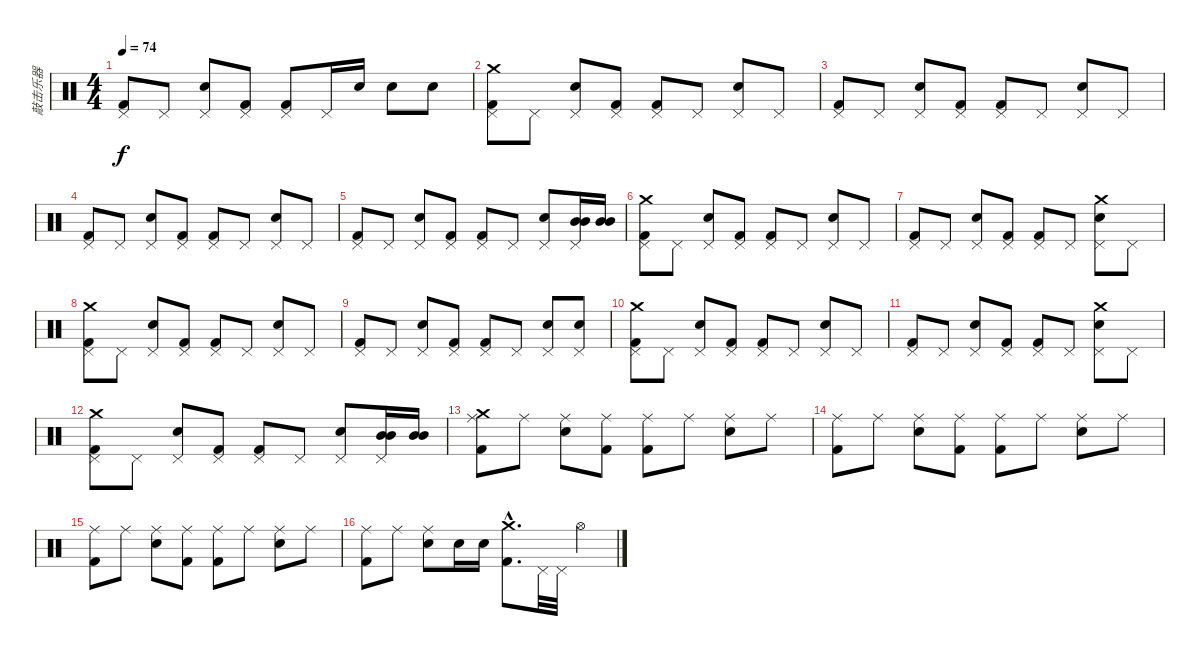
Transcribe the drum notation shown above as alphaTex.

\track ("敲击乐器" "敲击乐器") {instrument percussion}
\staff {score}
\articulation defaults
\ts (4 4)
\tempo 74
\clef neutral
\ks c
("Pedal Hi-Hat (hit)" "Kick (hit) 2").8{dy f} "Pedal Hi-Hat (hit)".8 ("Pedal Hi-Hat (hit)" "Electric Snare (hit)").8 ("Pedal Hi-Hat (hit)" "Kick (hit) 2").8 ("Pedal Hi-Hat (hit)" "Kick (hit) 2").8 "Pedal Hi-Hat (hit)".16 "Electric Snare (hit)".16 "Electric Snare (hit)".8 "Electric Snare (hit)".8 |
("Pedal Hi-Hat (hit)" "Kick (hit) 2" "Crash medium (hit)").8 "Pedal Hi-Hat (hit)".8 ("Pedal Hi-Hat (hit)" "Electric Snare (hit)").8 ("Pedal Hi-Hat (hit)" "Kick (hit) 2").8 ("Pedal Hi-Hat (hit)" "Kick (hit) 2").8 "Pedal Hi-Hat (hit)".8 ("Pedal Hi-Hat (hit)" "Electric Snare (hit)").8 "Pedal Hi-Hat (hit)".8 |
("Pedal Hi-Hat (hit)" "Kick (hit) 2").8 "Pedal Hi-Hat (hit)".8 ("Pedal Hi-Hat (hit)" "Electric Snare (hit)").8 ("Pedal Hi-Hat (hit)" "Kick (hit) 2").8 ("Pedal Hi-Hat (hit)" "Kick (hit) 2").8 "Pedal Hi-Hat (hit)".8 ("Pedal Hi-Hat (hit)" "Electric Snare (hit)").8 "Pedal Hi-Hat (hit)".8 |
("Pedal Hi-Hat (hit)" "Kick (hit) 2").8 "Pedal Hi-Hat (hit)".8 ("Pedal Hi-Hat (hit)" "Electric Snare (hit)").8 ("Pedal Hi-Hat (hit)" "Kick (hit) 2").8 ("Pedal Hi-Hat (hit)" "Kick (hit) 2").8 "Pedal Hi-Hat (hit)".8 ("Pedal Hi-Hat (hit)" "Electric Snare (hit)").8 "Pedal Hi-Hat (hit)".8 |
("Pedal Hi-Hat (hit)" "Kick (hit) 2").8 "Pedal Hi-Hat (hit)".8 ("Pedal Hi-Hat (hit)" "Electric Snare (hit)").8 ("Pedal Hi-Hat (hit)" "Kick (hit) 2").8 ("Pedal Hi-Hat (hit)" "Kick (hit) 2").8 "Pedal Hi-Hat (hit)".8 ("Pedal Hi-Hat (hit)" "Electric Snare (hit)").8 ("Pedal Hi-Hat (hit)" "Mid Tom (hit)" "Mid Tom (hit)").16 ("Mid Tom (hit)" "Mid Tom (hit)").16 |
("Pedal Hi-Hat (hit)" "Kick (hit) 2" "Crash medium (hit)").8 "Pedal Hi-Hat (hit)".8 ("Pedal Hi-Hat (hit)" "Electric Snare (hit)").8 ("Pedal Hi-Hat (hit)" "Kick (hit) 2").8 ("Pedal Hi-Hat (hit)" "Kick (hit) 2").8 "Pedal Hi-Hat (hit)".8 ("Pedal Hi-Hat (hit)" "Electric Snare (hit)").8 "Pedal Hi-Hat (hit)".8 |
("Pedal Hi-Hat (hit)" "Kick (hit) 2").8 "Pedal Hi-Hat (hit)".8 ("Pedal Hi-Hat (hit)" "Electric Snare (hit)").8 ("Pedal Hi-Hat (hit)" "Kick (hit) 2").8 ("Pedal Hi-Hat (hit)" "Kick (hit) 2").8 "Pedal Hi-Hat (hit)".8 ("Pedal Hi-Hat (hit)" "Electric Snare (hit)" "Crash medium (hit)").8 "Pedal Hi-Hat (hit)".8 |
("Pedal Hi-Hat (hit)" "Kick (hit) 2" "Crash medium (hit)").8 "Pedal Hi-Hat (hit)".8 ("Pedal Hi-Hat (hit)" "Electric Snare (hit)").8 ("Pedal Hi-Hat (hit)" "Kick (hit) 2").8 ("Pedal Hi-Hat (hit)" "Kick (hit) 2").8 "Pedal Hi-Hat (hit)".8 ("Pedal Hi-Hat (hit)" "Electric Snare (hit)").8 "Pedal Hi-Hat (hit)".8 |
("Pedal Hi-Hat (hit)" "Kick (hit) 2").8 "Pedal Hi-Hat (hit)".8 ("Pedal Hi-Hat (hit)" "Electric Snare (hit)").8 ("Pedal Hi-Hat (hit)" "Kick (hit) 2").8 ("Pedal Hi-Hat (hit)" "Kick (hit) 2").8 "Pedal Hi-Hat (hit)".8 ("Pedal Hi-Hat (hit)" "Electric Snare (hit)").8 ("Pedal Hi-Hat (hit)" "Electric Snare (hit)").8 |
("Pedal Hi-Hat (hit)" "Kick (hit) 2" "Crash medium (hit)").8 "Pedal Hi-Hat (hit)".8 ("Pedal Hi-Hat (hit)" "Electric Snare (hit)").8 ("Pedal Hi-Hat (hit)" "Kick (hit) 2").8 ("Pedal Hi-Hat (hit)" "Kick (hit) 2").8 "Pedal Hi-Hat (hit)".8 ("Pedal Hi-Hat (hit)" "Electric Snare (hit)").8 "Pedal Hi-Hat (hit)".8 |
("Pedal Hi-Hat (hit)" "Kick (hit) 2").8 "Pedal Hi-Hat (hit)".8 ("Pedal Hi-Hat (hit)" "Electric Snare (hit)").8 ("Pedal Hi-Hat (hit)" "Kick (hit) 2").8 ("Pedal Hi-Hat (hit)" "Kick (hit) 2").8 "Pedal Hi-Hat (hit)".8 ("Pedal Hi-Hat (hit)" "Electric Snare (hit)" "Crash medium (hit)").8 "Pedal Hi-Hat (hit)".8 |
("Pedal Hi-Hat (hit)" "Kick (hit) 2" "Crash medium (hit)").8 "Pedal Hi-Hat (hit)".8 ("Pedal Hi-Hat (hit)" "Electric Snare (hit)").8 ("Pedal Hi-Hat (hit)" "Kick (hit) 2").8 ("Pedal Hi-Hat (hit)" "Kick (hit) 2").8 "Pedal Hi-Hat (hit)".8 ("Pedal Hi-Hat (hit)" "Electric Snare (hit)").8 ("Pedal Hi-Hat (hit)" "Mid Tom (hit)" "Mid Tom (hit)").16 ("Mid Tom (hit)" "Mid Tom (hit)").16 |
("Ride (middle)" "Kick (hit) 2" "Crash medium (hit)").8 "Ride (middle)".8 ("Ride (middle)" "Electric Snare (hit)").8 ("Ride (middle)" "Kick (hit) 2").8 ("Ride (middle)" "Kick (hit) 2").8 "Ride (middle)".8 ("Ride (middle)" "Electric Snare (hit)").8 "Ride (middle)".8 |
("Ride (middle)" "Kick (hit) 2").8 "Ride (middle)".8 ("Ride (middle)" "Electric Snare (hit)").8 ("Ride (middle)" "Kick (hit) 2").8 ("Ride (middle)" "Kick (hit) 2").8 "Ride (middle)".8 ("Ride (middle)" "Electric Snare (hit)").8 "Ride (middle)".8 |
("Ride (middle)" "Kick (hit) 2").8 "Ride (middle)".8 ("Ride (middle)" "Electric Snare (hit)").8 ("Ride (middle)" "Kick (hit) 2").8 ("Ride (middle)" "Kick (hit) 2").8 "Ride (middle)".8 ("Ride (middle)" "Electric Snare (hit)").8 "Ride (middle)".8 |
("Ride (middle)" "Kick (hit) 2").8 "Ride (middle)".8 ("Ride (middle)" "Electric Snare (hit)").8 "Electric Snare (hit)".16 "Electric Snare (hit)".16 ("Kick (hit) 2"{hac} "Crash medium (hit)"{hac}).8{d} "Pedal Hi-Hat (hit)".32 "Pedal Hi-Hat (hit)".32 "Hi-Hat (open)".4
